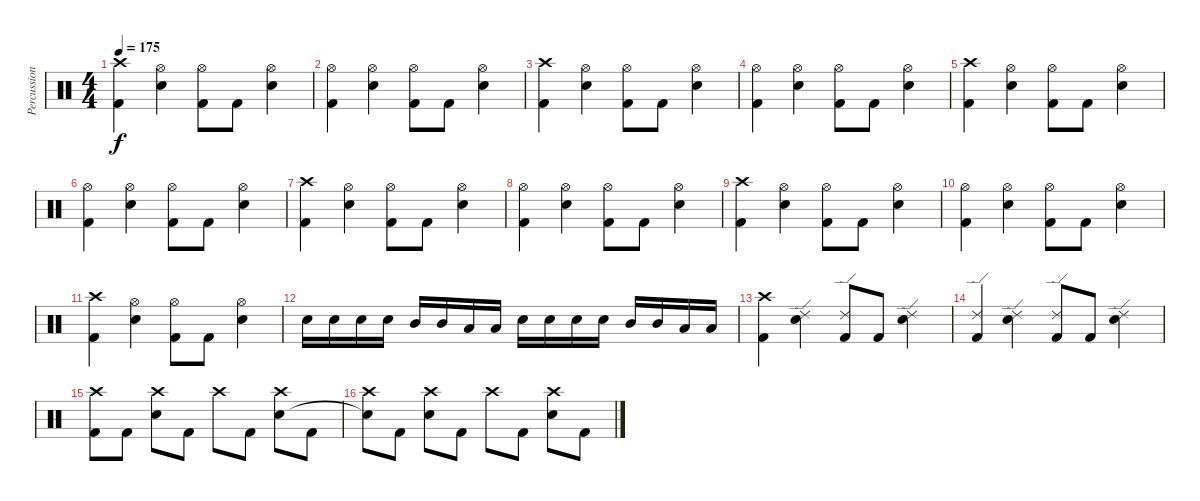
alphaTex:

\track ("Percussion" "Percussion") {instrument percussion}
\staff {score}
\articulation defaults
\ts (4 4)
\tempo 175
\clef neutral
\ks c
("Crash high (hit)" "Kick (hit) 2").4{dy f} ("Hi-Hat (open)" "Snare (hit) 2").4 ("Hi-Hat (open)" "Kick (hit) 2").8 "Kick (hit) 2".8 ("Hi-Hat (open)" "Snare (hit) 2").4 |
("Hi-Hat (open)" "Kick (hit) 2").4 ("Hi-Hat (open)" "Snare (hit) 2").4 ("Hi-Hat (open)" "Kick (hit) 2").8 "Kick (hit) 2".8 ("Hi-Hat (open)" "Snare (hit) 2").4 |
("Crash high (hit)" "Kick (hit) 2").4 ("Hi-Hat (open)" "Snare (hit) 2").4 ("Hi-Hat (open)" "Kick (hit) 2").8 "Kick (hit) 2".8 ("Hi-Hat (open)" "Snare (hit) 2").4 |
("Hi-Hat (open)" "Kick (hit) 2").4 ("Hi-Hat (open)" "Snare (hit) 2").4 ("Hi-Hat (open)" "Kick (hit) 2").8 "Kick (hit) 2".8 ("Hi-Hat (open)" "Snare (hit) 2").4 |
("Crash high (hit)" "Kick (hit) 2").4 ("Hi-Hat (open)" "Snare (hit) 2").4 ("Hi-Hat (open)" "Kick (hit) 2").8 "Kick (hit) 2".8 ("Hi-Hat (open)" "Snare (hit) 2").4 |
("Hi-Hat (open)" "Kick (hit) 2").4 ("Hi-Hat (open)" "Snare (hit) 2").4 ("Hi-Hat (open)" "Kick (hit) 2").8 "Kick (hit) 2".8 ("Hi-Hat (open)" "Snare (hit) 2").4 |
("Crash high (hit)" "Kick (hit) 2").4 ("Hi-Hat (open)" "Snare (hit) 2").4 ("Hi-Hat (open)" "Kick (hit) 2").8 "Kick (hit) 2".8 ("Hi-Hat (open)" "Snare (hit) 2").4 |
("Hi-Hat (open)" "Kick (hit) 2").4 ("Hi-Hat (open)" "Snare (hit) 2").4 ("Hi-Hat (open)" "Kick (hit) 2").8 "Kick (hit) 2".8 ("Hi-Hat (open)" "Snare (hit) 2").4 |
("Crash high (hit)" "Kick (hit) 2").4 ("Hi-Hat (open)" "Snare (hit) 2").4 ("Hi-Hat (open)" "Kick (hit) 2").8 "Kick (hit) 2".8 ("Hi-Hat (open)" "Snare (hit) 2").4 |
("Hi-Hat (open)" "Kick (hit) 2").4 ("Hi-Hat (open)" "Snare (hit) 2").4 ("Hi-Hat (open)" "Kick (hit) 2").8 "Kick (hit) 2".8 ("Hi-Hat (open)" "Snare (hit) 2").4 |
("Crash high (hit)" "Kick (hit) 2").4 ("Hi-Hat (open)" "Snare (hit) 2").4 ("Hi-Hat (open)" "Kick (hit) 2").8 "Kick (hit) 2".8 ("Hi-Hat (open)" "Snare (hit) 2").4 |
"Snare (hit) 2".16 "Snare (hit) 2".16 "Snare (hit) 2".16 "Snare (hit) 2".16 "Mid Tom (hit)".16 "Mid Tom (hit)".16 "Low Tom (hit)".16 "Low Tom (hit)".16 "Snare (hit) 2".16 "Snare (hit) 2".16 "Snare (hit) 2".16 "Snare (hit) 2".16 "Mid Tom (hit)".16 "Mid Tom (hit)".16 "Low Tom (hit)".16 "Low Tom (hit)".16 |
("Crash high (hit)" "Kick (hit) 2").4 ("Ride (edge) 2" "Snare (hit) 2").4 ("Ride (edge) 2" "Kick (hit) 2").8 "Kick (hit) 2".8 ("Ride (edge) 2" "Snare (hit) 2").4 |
("Ride (edge) 2" "Kick (hit) 2").4 ("Ride (edge) 2" "Snare (hit) 2").4 ("Ride (edge) 2" "Kick (hit) 2").8 "Kick (hit) 2".8 ("Ride (edge) 2" "Snare (hit) 2").4 |
("Crash high (hit)" "Kick (hit) 2").8 "Kick (hit) 2".8 ("Crash high (hit)" "Snare (hit) 2").8 "Kick (hit) 2".8 "Crash high (hit)".8 "Kick (hit) 2".8 ("Crash high (hit)" "Snare (hit) 2").8 "Kick (hit) 2".8 |
("Crash high (hit)" "Snare (hit)"{t}).8 "Kick (hit) 2".8 ("Crash high (hit)" "Snare (hit) 2").8 "Kick (hit) 2".8 "Crash high (hit)".8 "Kick (hit) 2".8 ("Crash high (hit)" "Snare (hit) 2").8 "Kick (hit) 2".8
